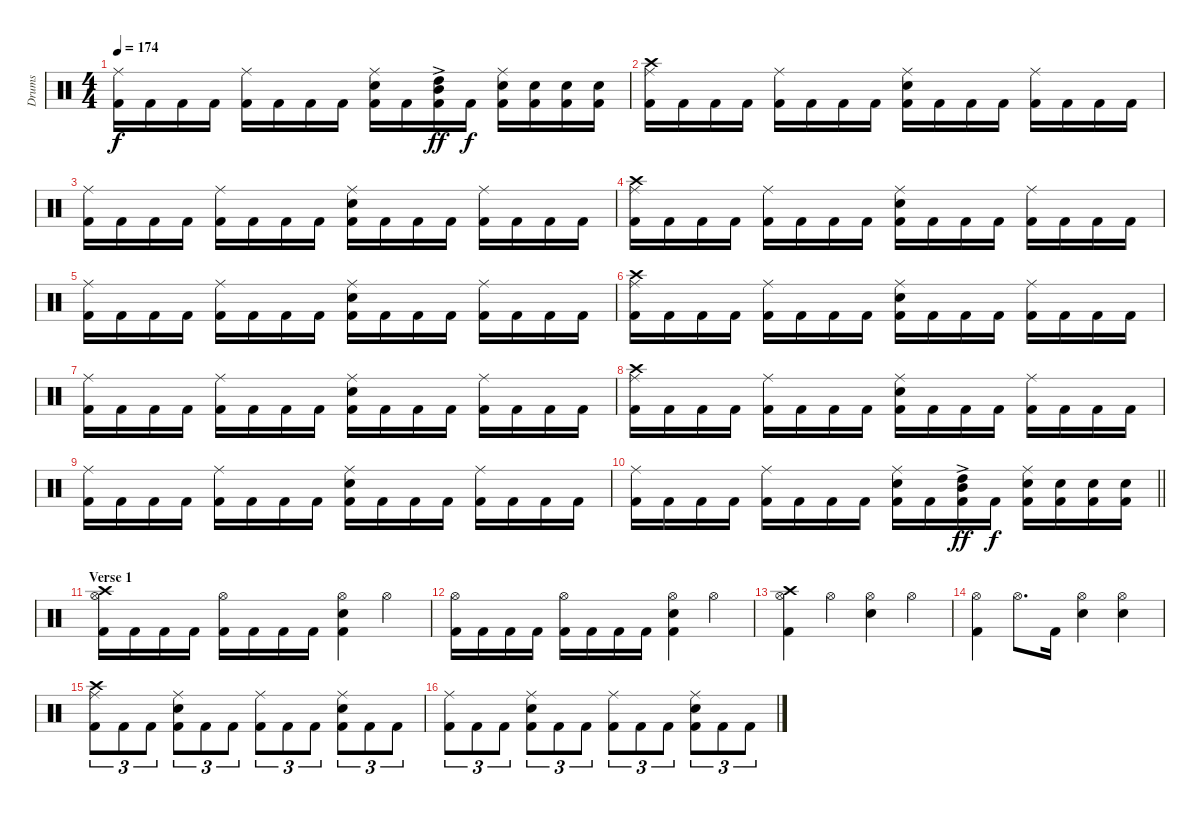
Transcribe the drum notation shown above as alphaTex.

\track ("Drums" "Drums") {instrument percussion}
\staff {score}
\articulation defaults
\ts (4 4)
\tempo 174
\clef neutral
\ks c
("Ride (middle)" "Kick (hit) 2").16{dy f} "Kick (hit) 2".16 "Kick (hit) 2".16 "Kick (hit) 2".16 ("Ride (middle)" "Kick (hit) 2").16 "Kick (hit) 2".16 "Kick (hit) 2".16 "Kick (hit) 2".16 ("Ride (middle)" "Snare (hit) 2" "Kick (hit) 2").16 "Kick (hit) 2".16 ("High Tom (hit)"{ac} "Mid Tom (hit)"{ac} "Kick (hit) 2").16{dy ff} "Kick (hit) 2".16{dy f} ("Ride (middle)" "Snare (hit) 2" "Kick (hit) 2").16 ("Snare (hit) 2" "Kick (hit) 2").16 ("Snare (hit) 2" "Kick (hit) 2").16 ("Snare (hit) 2" "Kick (hit) 2").16 |
("Crash high (hit)" "Ride (middle)" "Kick (hit) 2").16 "Kick (hit) 2".16 "Kick (hit) 2".16 "Kick (hit) 2".16 ("Ride (middle)" "Kick (hit) 2").16 "Kick (hit) 2".16 "Kick (hit) 2".16 "Kick (hit) 2".16 ("Ride (middle)" "Snare (hit) 2" "Kick (hit) 2").16 "Kick (hit) 2".16 "Kick (hit) 2".16 "Kick (hit) 2".16 ("Ride (middle)" "Kick (hit) 2").16 "Kick (hit) 2".16 "Kick (hit) 2".16 "Kick (hit) 2".16 |
("Ride (middle)" "Kick (hit) 2").16 "Kick (hit) 2".16 "Kick (hit) 2".16 "Kick (hit) 2".16 ("Ride (middle)" "Kick (hit) 2").16 "Kick (hit) 2".16 "Kick (hit) 2".16 "Kick (hit) 2".16 ("Ride (middle)" "Snare (hit) 2" "Kick (hit) 2").16 "Kick (hit) 2".16 "Kick (hit) 2".16 "Kick (hit) 2".16 ("Ride (middle)" "Kick (hit) 2").16 "Kick (hit) 2".16 "Kick (hit) 2".16 "Kick (hit) 2".16 |
("Crash high (hit)" "Ride (middle)" "Kick (hit) 2").16 "Kick (hit) 2".16 "Kick (hit) 2".16 "Kick (hit) 2".16 ("Ride (middle)" "Kick (hit) 2").16 "Kick (hit) 2".16 "Kick (hit) 2".16 "Kick (hit) 2".16 ("Ride (middle)" "Snare (hit) 2" "Kick (hit) 2").16 "Kick (hit) 2".16 "Kick (hit) 2".16 "Kick (hit) 2".16 ("Ride (middle)" "Kick (hit) 2").16 "Kick (hit) 2".16 "Kick (hit) 2".16 "Kick (hit) 2".16 |
("Ride (middle)" "Kick (hit) 2").16 "Kick (hit) 2".16 "Kick (hit) 2".16 "Kick (hit) 2".16 ("Ride (middle)" "Kick (hit) 2").16 "Kick (hit) 2".16 "Kick (hit) 2".16 "Kick (hit) 2".16 ("Ride (middle)" "Snare (hit) 2" "Kick (hit) 2").16 "Kick (hit) 2".16 "Kick (hit) 2".16 "Kick (hit) 2".16 ("Ride (middle)" "Kick (hit) 2").16 "Kick (hit) 2".16 "Kick (hit) 2".16 "Kick (hit) 2".16 |
("Crash high (hit)" "Ride (middle)" "Kick (hit) 2").16 "Kick (hit) 2".16 "Kick (hit) 2".16 "Kick (hit) 2".16 ("Ride (middle)" "Kick (hit) 2").16 "Kick (hit) 2".16 "Kick (hit) 2".16 "Kick (hit) 2".16 ("Ride (middle)" "Snare (hit) 2" "Kick (hit) 2").16 "Kick (hit) 2".16 "Kick (hit) 2".16 "Kick (hit) 2".16 ("Ride (middle)" "Kick (hit) 2").16 "Kick (hit) 2".16 "Kick (hit) 2".16 "Kick (hit) 2".16 |
("Ride (middle)" "Kick (hit) 2").16 "Kick (hit) 2".16 "Kick (hit) 2".16 "Kick (hit) 2".16 ("Ride (middle)" "Kick (hit) 2").16 "Kick (hit) 2".16 "Kick (hit) 2".16 "Kick (hit) 2".16 ("Ride (middle)" "Snare (hit) 2" "Kick (hit) 2").16 "Kick (hit) 2".16 "Kick (hit) 2".16 "Kick (hit) 2".16 ("Ride (middle)" "Kick (hit) 2").16 "Kick (hit) 2".16 "Kick (hit) 2".16 "Kick (hit) 2".16 |
("Crash high (hit)" "Ride (middle)" "Kick (hit) 2").16 "Kick (hit) 2".16 "Kick (hit) 2".16 "Kick (hit) 2".16 ("Ride (middle)" "Kick (hit) 2").16 "Kick (hit) 2".16 "Kick (hit) 2".16 "Kick (hit) 2".16 ("Ride (middle)" "Snare (hit) 2" "Kick (hit) 2").16 "Kick (hit) 2".16 "Kick (hit) 2".16 "Kick (hit) 2".16 ("Ride (middle)" "Kick (hit) 2").16 "Kick (hit) 2".16 "Kick (hit) 2".16 "Kick (hit) 2".16 |
("Ride (middle)" "Kick (hit) 2").16 "Kick (hit) 2".16 "Kick (hit) 2".16 "Kick (hit) 2".16 ("Ride (middle)" "Kick (hit) 2").16 "Kick (hit) 2".16 "Kick (hit) 2".16 "Kick (hit) 2".16 ("Ride (middle)" "Snare (hit) 2" "Kick (hit) 2").16 "Kick (hit) 2".16 "Kick (hit) 2".16 "Kick (hit) 2".16 ("Ride (middle)" "Kick (hit) 2").16 "Kick (hit) 2".16 "Kick (hit) 2".16 "Kick (hit) 2".16 |
\barLineRight lightlight
("Ride (middle)" "Kick (hit) 2").16 "Kick (hit) 2".16 "Kick (hit) 2".16 "Kick (hit) 2".16 ("Ride (middle)" "Kick (hit) 2").16 "Kick (hit) 2".16 "Kick (hit) 2".16 "Kick (hit) 2".16 ("Ride (middle)" "Snare (hit) 2" "Kick (hit) 2").16 "Kick (hit) 2".16 ("High Tom (hit)"{ac} "Mid Tom (hit)"{ac} "Kick (hit) 2").16{dy ff} "Kick (hit) 2".16{dy f} ("Ride (middle)" "Snare (hit) 2" "Kick (hit) 2").16 ("Snare (hit) 2" "Kick (hit) 2").16 ("Snare (hit) 2" "Kick (hit) 2").16 ("Snare (hit) 2" "Kick (hit) 2").16 |
\section ("" "Verse 1")
("Hi-Hat (open)" "Crash high (hit)" "Kick (hit) 2").16 "Kick (hit) 2".16 "Kick (hit) 2".16 "Kick (hit) 2".16 ("Hi-Hat (open)" "Kick (hit) 2").16 "Kick (hit) 2".16 "Kick (hit) 2".16 "Kick (hit) 2".16 ("Hi-Hat (open)" "Snare (hit) 2" "Kick (hit) 2").4 "Hi-Hat (open)".4 |
("Hi-Hat (open)" "Kick (hit) 2").16 "Kick (hit) 2".16 "Kick (hit) 2".16 "Kick (hit) 2".16 ("Hi-Hat (open)" "Kick (hit) 2").16 "Kick (hit) 2".16 "Kick (hit) 2".16 "Kick (hit) 2".16 ("Hi-Hat (open)" "Snare (hit) 2" "Kick (hit) 2").4 "Hi-Hat (open)".4 |
("Hi-Hat (open)" "Crash high (hit)" "Kick (hit) 2").4 "Hi-Hat (open)".4 ("Hi-Hat (open)" "Snare (hit) 2").4 "Hi-Hat (open)".4 |
("Hi-Hat (open)" "Kick (hit) 2").4 "Hi-Hat (open)".8{d} "Kick (hit) 2".16 ("Hi-Hat (open)" "Snare (hit) 2").4 ("Hi-Hat (open)" "Snare (hit) 2").4 |
("Crash high (hit)" "Ride (middle)" "Kick (hit) 2").8{tu (3 2)} "Kick (hit) 2".8{tu (3 2)} "Kick (hit) 2".8{tu (3 2)} ("Ride (middle)" "Snare (hit) 2" "Kick (hit) 2").8{tu (3 2)} "Kick (hit) 2".8{tu (3 2)} "Kick (hit) 2".8{tu (3 2)} ("Ride (middle)" "Kick (hit) 2").8{tu (3 2)} "Kick (hit) 2".8{tu (3 2)} "Kick (hit) 2".8{tu (3 2)} ("Ride (middle)" "Snare (hit) 2" "Kick (hit) 2").8{tu (3 2)} "Kick (hit) 2".8{tu (3 2)} "Kick (hit) 2".8{tu (3 2)} |
("Ride (middle)" "Kick (hit) 2").8{tu (3 2)} "Kick (hit) 2".8{tu (3 2)} "Kick (hit) 2".8{tu (3 2)} ("Ride (middle)" "Snare (hit) 2" "Kick (hit) 2").8{tu (3 2)} "Kick (hit) 2".8{tu (3 2)} "Kick (hit) 2".8{tu (3 2)} ("Ride (middle)" "Kick (hit) 2").8{tu (3 2)} "Kick (hit) 2".8{tu (3 2)} "Kick (hit) 2".8{tu (3 2)} ("Ride (middle)" "Snare (hit) 2" "Kick (hit) 2").8{tu (3 2)} "Kick (hit) 2".8{tu (3 2)} "Kick (hit) 2".8{tu (3 2)}
